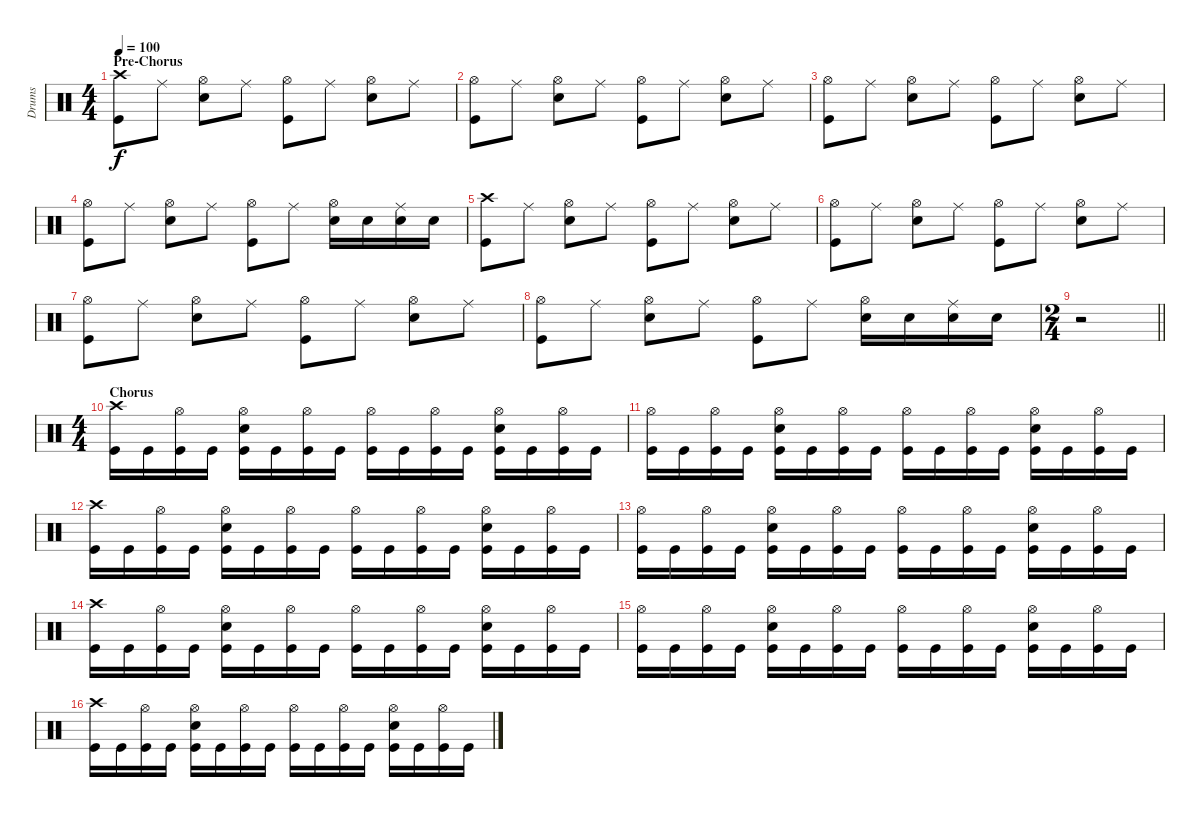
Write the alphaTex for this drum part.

\track ("Drums" "Drums") {instrument percussion}
\staff {score}
\articulation defaults
\ts (4 4)
\section ("" "Pre-Chorus")
\tempo 100
\clef neutral
\ks c
("Crash high (hit)" "Kick (hit)").8{dy f} "Ride (middle)".8 ("Hi-Hat (open)" "Electric Snare (hit)").8 "Ride (middle)".8 ("Hi-Hat (open)" "Kick (hit)").8 "Ride (middle)".8 ("Hi-Hat (open)" "Electric Snare (hit)").8 "Ride (middle)".8 |
("Hi-Hat (open)" "Kick (hit)").8 "Ride (middle)".8 ("Hi-Hat (open)" "Electric Snare (hit)").8 "Ride (middle)".8 ("Hi-Hat (open)" "Kick (hit)").8 "Ride (middle)".8 ("Hi-Hat (open)" "Electric Snare (hit)").8 "Ride (middle)".8 |
("Hi-Hat (open)" "Kick (hit)").8 "Ride (middle)".8 ("Hi-Hat (open)" "Electric Snare (hit)").8 "Ride (middle)".8 ("Hi-Hat (open)" "Kick (hit)").8 "Ride (middle)".8 ("Hi-Hat (open)" "Electric Snare (hit)").8 "Ride (middle)".8 |
("Hi-Hat (open)" "Kick (hit)").8 "Ride (middle)".8 ("Hi-Hat (open)" "Electric Snare (hit)").8 "Ride (middle)".8 ("Hi-Hat (open)" "Kick (hit)").8 "Ride (middle)".8 ("Hi-Hat (open)" "Electric Snare (hit)").16 "Electric Snare (hit)".16 ("Ride (middle)" "Electric Snare (hit)").16 "Electric Snare (hit)".16 |
("Crash high (hit)" "Kick (hit)").8 "Ride (middle)".8 ("Hi-Hat (open)" "Electric Snare (hit)").8 "Ride (middle)".8 ("Hi-Hat (open)" "Kick (hit)").8 "Ride (middle)".8 ("Hi-Hat (open)" "Electric Snare (hit)").8 "Ride (middle)".8 |
("Hi-Hat (open)" "Kick (hit)").8 "Ride (middle)".8 ("Hi-Hat (open)" "Electric Snare (hit)").8 "Ride (middle)".8 ("Hi-Hat (open)" "Kick (hit)").8 "Ride (middle)".8 ("Hi-Hat (open)" "Electric Snare (hit)").8 "Ride (middle)".8 |
("Hi-Hat (open)" "Kick (hit)").8 "Ride (middle)".8 ("Hi-Hat (open)" "Electric Snare (hit)").8 "Ride (middle)".8 ("Hi-Hat (open)" "Kick (hit)").8 "Ride (middle)".8 ("Hi-Hat (open)" "Electric Snare (hit)").8 "Ride (middle)".8 |
("Hi-Hat (open)" "Kick (hit)").8 "Ride (middle)".8 ("Hi-Hat (open)" "Electric Snare (hit)").8 "Ride (middle)".8 ("Hi-Hat (open)" "Kick (hit)").8 "Ride (middle)".8 ("Hi-Hat (open)" "Electric Snare (hit)").16 "Electric Snare (hit)".16 ("Ride (middle)" "Electric Snare (hit)").16 "Electric Snare (hit)".16 |
\ts (2 4)
\barLineRight lightlight
r.2 |
\ts (4 4)
\section ("" "Chorus")
("Crash high (hit)" "Kick (hit)").16 "Kick (hit)".16 ("Hi-Hat (open)" "Kick (hit)").16 "Kick (hit)".16 ("Hi-Hat (open)" "Electric Snare (hit)" "Kick (hit)").16 "Kick (hit)".16 ("Hi-Hat (open)" "Kick (hit)").16 "Kick (hit)".16 ("Hi-Hat (open)" "Kick (hit)").16 "Kick (hit)".16 ("Hi-Hat (open)" "Kick (hit)").16 "Kick (hit)".16 ("Hi-Hat (open)" "Electric Snare (hit)" "Kick (hit)").16 "Kick (hit)".16 ("Hi-Hat (open)" "Kick (hit)").16 "Kick (hit)".16 |
("Hi-Hat (open)" "Kick (hit)").16 "Kick (hit)".16 ("Hi-Hat (open)" "Kick (hit)").16 "Kick (hit)".16 ("Hi-Hat (open)" "Electric Snare (hit)" "Kick (hit)").16 "Kick (hit)".16 ("Hi-Hat (open)" "Kick (hit)").16 "Kick (hit)".16 ("Hi-Hat (open)" "Kick (hit)").16 "Kick (hit)".16 ("Hi-Hat (open)" "Kick (hit)").16 "Kick (hit)".16 ("Hi-Hat (open)" "Electric Snare (hit)" "Kick (hit)").16 "Kick (hit)".16 ("Hi-Hat (open)" "Kick (hit)").16 "Kick (hit)".16 |
("Crash high (hit)" "Kick (hit)").16 "Kick (hit)".16 ("Hi-Hat (open)" "Kick (hit)").16 "Kick (hit)".16 ("Hi-Hat (open)" "Electric Snare (hit)" "Kick (hit)").16 "Kick (hit)".16 ("Hi-Hat (open)" "Kick (hit)").16 "Kick (hit)".16 ("Hi-Hat (open)" "Kick (hit)").16 "Kick (hit)".16 ("Hi-Hat (open)" "Kick (hit)").16 "Kick (hit)".16 ("Hi-Hat (open)" "Electric Snare (hit)" "Kick (hit)").16 "Kick (hit)".16 ("Hi-Hat (open)" "Kick (hit)").16 "Kick (hit)".16 |
("Hi-Hat (open)" "Kick (hit)").16 "Kick (hit)".16 ("Hi-Hat (open)" "Kick (hit)").16 "Kick (hit)".16 ("Hi-Hat (open)" "Electric Snare (hit)" "Kick (hit)").16 "Kick (hit)".16 ("Hi-Hat (open)" "Kick (hit)").16 "Kick (hit)".16 ("Hi-Hat (open)" "Kick (hit)").16 "Kick (hit)".16 ("Hi-Hat (open)" "Kick (hit)").16 "Kick (hit)".16 ("Hi-Hat (open)" "Electric Snare (hit)" "Kick (hit)").16 "Kick (hit)".16 ("Hi-Hat (open)" "Kick (hit)").16 "Kick (hit)".16 |
("Crash high (hit)" "Kick (hit)").16 "Kick (hit)".16 ("Hi-Hat (open)" "Kick (hit)").16 "Kick (hit)".16 ("Hi-Hat (open)" "Electric Snare (hit)" "Kick (hit)").16 "Kick (hit)".16 ("Hi-Hat (open)" "Kick (hit)").16 "Kick (hit)".16 ("Hi-Hat (open)" "Kick (hit)").16 "Kick (hit)".16 ("Hi-Hat (open)" "Kick (hit)").16 "Kick (hit)".16 ("Hi-Hat (open)" "Electric Snare (hit)" "Kick (hit)").16 "Kick (hit)".16 ("Hi-Hat (open)" "Kick (hit)").16 "Kick (hit)".16 |
("Hi-Hat (open)" "Kick (hit)").16 "Kick (hit)".16 ("Hi-Hat (open)" "Kick (hit)").16 "Kick (hit)".16 ("Hi-Hat (open)" "Electric Snare (hit)" "Kick (hit)").16 "Kick (hit)".16 ("Hi-Hat (open)" "Kick (hit)").16 "Kick (hit)".16 ("Hi-Hat (open)" "Kick (hit)").16 "Kick (hit)".16 ("Hi-Hat (open)" "Kick (hit)").16 "Kick (hit)".16 ("Hi-Hat (open)" "Electric Snare (hit)" "Kick (hit)").16 "Kick (hit)".16 ("Hi-Hat (open)" "Kick (hit)").16 "Kick (hit)".16 |
("Crash high (hit)" "Kick (hit)").16 "Kick (hit)".16 ("Hi-Hat (open)" "Kick (hit)").16 "Kick (hit)".16 ("Hi-Hat (open)" "Electric Snare (hit)" "Kick (hit)").16 "Kick (hit)".16 ("Hi-Hat (open)" "Kick (hit)").16 "Kick (hit)".16 ("Hi-Hat (open)" "Kick (hit)").16 "Kick (hit)".16 ("Hi-Hat (open)" "Kick (hit)").16 "Kick (hit)".16 ("Hi-Hat (open)" "Electric Snare (hit)" "Kick (hit)").16 "Kick (hit)".16 ("Hi-Hat (open)" "Kick (hit)").16 "Kick (hit)".16
